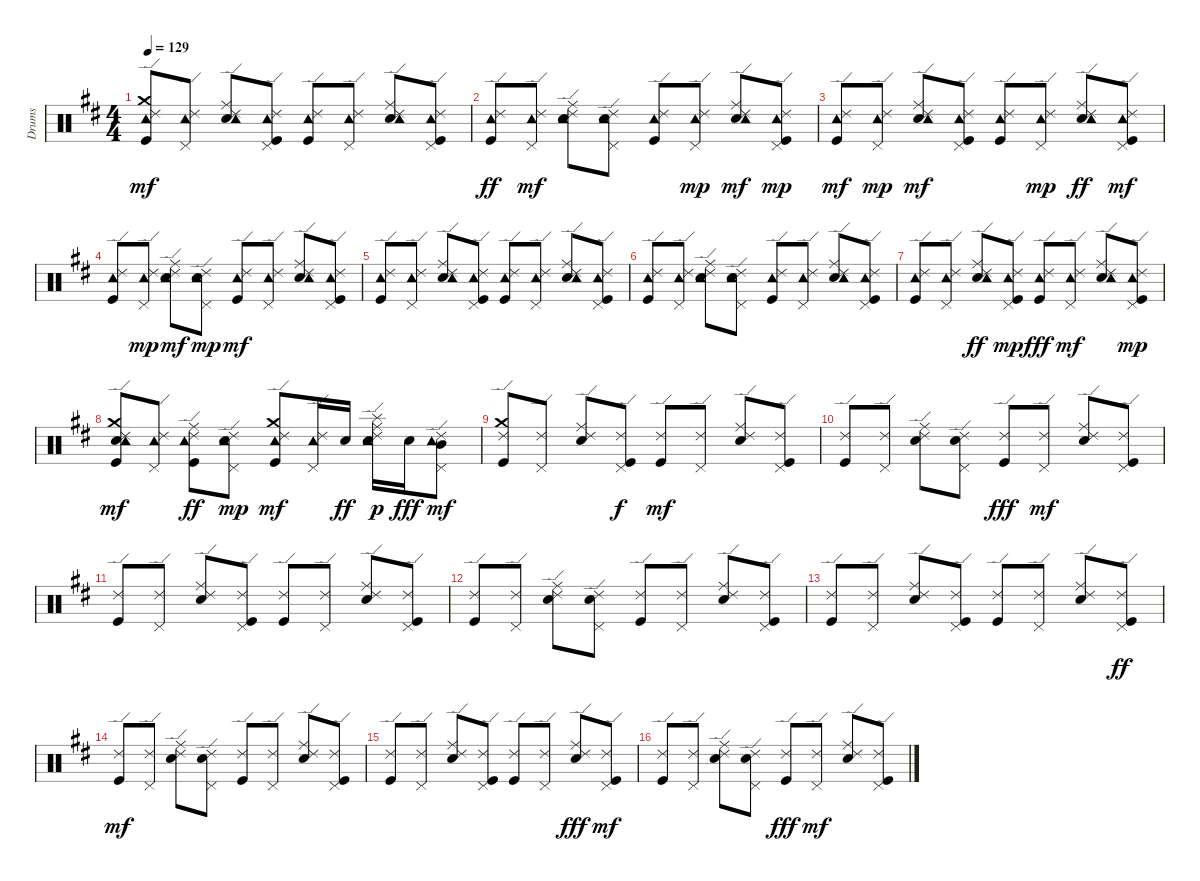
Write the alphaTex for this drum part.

\track ("Drums" "Drums") {instrument percussion}
\staff {score}
\articulation defaults
\ts (4 4)
\tempo 129
\clef neutral
\ks d
("Kick (hit)" "Tambourine (hit)" "Crash medium (hit)" "Ride (edge) 2").8{dy mf} ("Pedal Hi-Hat (hit)" "Tambourine (hit)" "Ride (edge) 2").8 ("Snare (hit) 2" "Ride (middle)" "Tambourine (hit)" "Ride (edge) 2").8 ("Kick (hit)" "Pedal Hi-Hat (hit)" "Tambourine (hit)" "Ride (edge) 2").8 ("Kick (hit)" "Tambourine (hit)" "Ride (edge) 2").8 ("Pedal Hi-Hat (hit)" "Tambourine (hit)" "Ride (edge) 2").8 ("Snare (hit) 2" "Ride (middle)" "Tambourine (hit)" "Ride (edge) 2").8 ("Kick (hit)" "Pedal Hi-Hat (hit)" "Tambourine (hit)" "Ride (edge) 2").8 |
("Kick (hit)" "Tambourine (hit)" "Ride (edge) 2").8{dy ff} ("Pedal Hi-Hat (hit)" "Tambourine (hit)" "Ride (edge) 2").8{dy mf} ("Snare (hit) 2" "Ride (middle)" "Tambourine (hit)" "Ride (edge) 2").8 ("Snare (hit) 2" "Pedal Hi-Hat (hit)" "Tambourine (hit)" "Ride (edge) 2").8 ("Kick (hit)" "Tambourine (hit)" "Ride (edge) 2").8 ("Pedal Hi-Hat (hit)" "Tambourine (hit)" "Ride (edge) 2").8{dy mp} ("Snare (hit) 2" "Ride (middle)" "Tambourine (hit)" "Ride (edge) 2").8{dy mf} ("Kick (hit)" "Pedal Hi-Hat (hit)" "Tambourine (hit)" "Ride (edge) 2").8{dy mp} |
("Kick (hit)" "Tambourine (hit)" "Ride (edge) 2").8{dy mf} ("Pedal Hi-Hat (hit)" "Tambourine (hit)" "Ride (edge) 2").8{dy mp} ("Snare (hit) 2" "Ride (middle)" "Tambourine (hit)" "Ride (edge) 2").8{dy mf} ("Kick (hit)" "Pedal Hi-Hat (hit)" "Tambourine (hit)" "Ride (edge) 2").8 ("Kick (hit)" "Tambourine (hit)" "Ride (edge) 2").8 ("Pedal Hi-Hat (hit)" "Tambourine (hit)" "Ride (edge) 2").8{dy mp} ("Snare (hit) 2" "Ride (middle)" "Tambourine (hit)" "Ride (edge) 2").8{dy ff} ("Kick (hit)" "Pedal Hi-Hat (hit)" "Tambourine (hit)" "Ride (edge) 2").8{dy mf} |
("Kick (hit)" "Tambourine (hit)" "Ride (edge) 2").8 ("Pedal Hi-Hat (hit)" "Tambourine (hit)" "Ride (edge) 2").8{dy mp} ("Snare (hit) 2" "Ride (middle)" "Tambourine (hit)" "Ride (edge) 2").8{dy mf} ("Snare (hit) 2" "Pedal Hi-Hat (hit)" "Tambourine (hit)" "Ride (edge) 2").8{dy mp} ("Kick (hit)" "Tambourine (hit)" "Ride (edge) 2").8{dy mf} ("Pedal Hi-Hat (hit)" "Tambourine (hit)" "Ride (edge) 2").8 ("Snare (hit) 2" "Ride (middle)" "Tambourine (hit)" "Ride (edge) 2").8 ("Kick (hit)" "Pedal Hi-Hat (hit)" "Tambourine (hit)" "Ride (edge) 2").8 |
("Kick (hit)" "Tambourine (hit)" "Ride (edge) 2").8 ("Pedal Hi-Hat (hit)" "Tambourine (hit)" "Ride (edge) 2").8 ("Snare (hit) 2" "Ride (middle)" "Tambourine (hit)" "Ride (edge) 2").8 ("Kick (hit)" "Pedal Hi-Hat (hit)" "Tambourine (hit)" "Ride (edge) 2").8 ("Kick (hit)" "Tambourine (hit)" "Ride (edge) 2").8 ("Pedal Hi-Hat (hit)" "Tambourine (hit)" "Ride (edge) 2").8 ("Snare (hit) 2" "Ride (middle)" "Tambourine (hit)" "Ride (edge) 2").8 ("Kick (hit)" "Pedal Hi-Hat (hit)" "Tambourine (hit)" "Ride (edge) 2").8 |
("Kick (hit)" "Tambourine (hit)" "Ride (edge) 2").8 ("Pedal Hi-Hat (hit)" "Tambourine (hit)" "Ride (edge) 2").8 ("Snare (hit) 2" "Ride (middle)" "Tambourine (hit)" "Ride (edge) 2").8 ("Snare (hit) 2" "Pedal Hi-Hat (hit)" "Tambourine (hit)" "Ride (edge) 2").8 ("Kick (hit)" "Tambourine (hit)" "Ride (edge) 2").8 ("Pedal Hi-Hat (hit)" "Tambourine (hit)" "Ride (edge) 2").8 ("Snare (hit) 2" "Ride (middle)" "Tambourine (hit)" "Ride (edge) 2").8 ("Kick (hit)" "Pedal Hi-Hat (hit)" "Tambourine (hit)" "Ride (edge) 2").8 |
("Kick (hit)" "Tambourine (hit)" "Ride (edge) 2").8 ("Pedal Hi-Hat (hit)" "Tambourine (hit)" "Ride (edge) 2").8 ("Snare (hit) 2" "Ride (middle)" "Tambourine (hit)" "Ride (edge) 2").8{dy ff} ("Kick (hit)" "Pedal Hi-Hat (hit)" "Tambourine (hit)" "Ride (edge) 2").8{dy mp} ("Kick (hit)" "Tambourine (hit)" "Ride (edge) 2").8{dy fff} ("Pedal Hi-Hat (hit)" "Tambourine (hit)" "Ride (edge) 2").8{dy mf} ("Snare (hit) 2" "Ride (middle)" "Tambourine (hit)" "Ride (edge) 2").8 ("Kick (hit)" "Pedal Hi-Hat (hit)" "Tambourine (hit)" "Ride (edge) 2").8{dy mp} |
("Kick (hit)" "Snare (hit) 2" "Tambourine (hit)" "Crash medium (hit)" "Ride (edge) 2").8{dy mf} ("Pedal Hi-Hat (hit)" "Tambourine (hit)" "Ride (edge) 2").8 ("Kick (hit)" "Ride (middle)" "Tambourine (hit)" "Ride (edge) 2").8{dy ff} ("Snare (hit) 2" "Pedal Hi-Hat (hit)" "Tambourine (hit)" "Ride (edge) 2").8{dy mp} ("Kick (hit)" "Tambourine (hit)" "Crash medium (hit)" "Ride (edge) 2").8{dy mf} ("Pedal Hi-Hat (hit)" "Tambourine (hit)" "Ride (edge) 2").16 "Snare (hit) 2".16{dy ff} ("Snare (hit) 2" "Ride (middle)" "Tambourine (hit)" "Splash (hit)" "Ride (edge) 2").16{dy p} "Snare (hit) 2".16{dy fff} ("Pedal Hi-Hat (hit)" "Mid Tom (hit)" "Tambourine (hit)" "Ride (edge) 2").8{dy mf} |
("Kick (hit)" "Crash medium (hit)" "Ride (edge) 2").8 ("Pedal Hi-Hat (hit)" "Ride (edge) 2").8 ("Snare (hit) 2" "Ride (middle)" "Ride (edge) 2").8 ("Kick (hit)" "Pedal Hi-Hat (hit)" "Ride (edge) 2").8{dy f} ("Kick (hit)" "Ride (edge) 2").8{dy mf} ("Pedal Hi-Hat (hit)" "Ride (edge) 2").8 ("Snare (hit) 2" "Ride (middle)" "Ride (edge) 2").8 ("Kick (hit)" "Pedal Hi-Hat (hit)" "Ride (edge) 2").8 |
("Kick (hit)" "Ride (edge) 2").8 ("Pedal Hi-Hat (hit)" "Ride (edge) 2").8 ("Snare (hit) 2" "Ride (middle)" "Ride (edge) 2").8 ("Snare (hit) 2" "Pedal Hi-Hat (hit)" "Ride (edge) 2").8 ("Kick (hit)" "Ride (edge) 2").8{dy fff} ("Pedal Hi-Hat (hit)" "Ride (edge) 2").8{dy mf} ("Snare (hit) 2" "Ride (middle)" "Ride (edge) 2").8 ("Kick (hit)" "Pedal Hi-Hat (hit)" "Ride (edge) 2").8 |
("Kick (hit)" "Ride (edge) 2").8 ("Pedal Hi-Hat (hit)" "Ride (edge) 2").8 ("Snare (hit) 2" "Ride (middle)" "Ride (edge) 2").8 ("Kick (hit)" "Pedal Hi-Hat (hit)" "Ride (edge) 2").8 ("Kick (hit)" "Ride (edge) 2").8 ("Pedal Hi-Hat (hit)" "Ride (edge) 2").8 ("Snare (hit) 2" "Ride (middle)" "Ride (edge) 2").8 ("Kick (hit)" "Pedal Hi-Hat (hit)" "Ride (edge) 2").8 |
("Kick (hit)" "Ride (edge) 2").8 ("Pedal Hi-Hat (hit)" "Ride (edge) 2").8 ("Snare (hit) 2" "Ride (middle)" "Ride (edge) 2").8 ("Snare (hit) 2" "Pedal Hi-Hat (hit)" "Ride (edge) 2").8 ("Kick (hit)" "Ride (edge) 2").8 ("Pedal Hi-Hat (hit)" "Ride (edge) 2").8 ("Snare (hit) 2" "Ride (middle)" "Ride (edge) 2").8 ("Kick (hit)" "Pedal Hi-Hat (hit)" "Ride (edge) 2").8 |
("Kick (hit)" "Ride (edge) 2").8 ("Pedal Hi-Hat (hit)" "Ride (edge) 2").8 ("Snare (hit) 2" "Ride (middle)" "Ride (edge) 2").8 ("Kick (hit)" "Pedal Hi-Hat (hit)" "Ride (edge) 2").8 ("Kick (hit)" "Ride (edge) 2").8 ("Pedal Hi-Hat (hit)" "Ride (edge) 2").8 ("Snare (hit) 2" "Ride (middle)" "Ride (edge) 2").8 ("Kick (hit)" "Pedal Hi-Hat (hit)" "Ride (edge) 2").8{dy ff} |
("Kick (hit)" "Ride (edge) 2").8{dy mf} ("Pedal Hi-Hat (hit)" "Ride (edge) 2").8 ("Snare (hit) 2" "Ride (middle)" "Ride (edge) 2").8 ("Snare (hit) 2" "Pedal Hi-Hat (hit)" "Ride (edge) 2").8 ("Kick (hit)" "Ride (edge) 2").8 ("Pedal Hi-Hat (hit)" "Ride (edge) 2").8 ("Snare (hit) 2" "Ride (middle)" "Ride (edge) 2").8 ("Kick (hit)" "Pedal Hi-Hat (hit)" "Ride (edge) 2").8 |
("Kick (hit)" "Ride (edge) 2").8 ("Pedal Hi-Hat (hit)" "Ride (edge) 2").8 ("Snare (hit) 2" "Ride (middle)" "Ride (edge) 2").8 ("Kick (hit)" "Pedal Hi-Hat (hit)" "Ride (edge) 2").8 ("Kick (hit)" "Ride (edge) 2").8 ("Pedal Hi-Hat (hit)" "Ride (edge) 2").8 ("Snare (hit) 2" "Ride (middle)" "Ride (edge) 2").8{dy fff} ("Kick (hit)" "Pedal Hi-Hat (hit)" "Ride (edge) 2").8{dy mf} |
("Kick (hit)" "Ride (edge) 2").8 ("Pedal Hi-Hat (hit)" "Ride (edge) 2").8 ("Snare (hit) 2" "Ride (middle)" "Ride (edge) 2").8 ("Snare (hit) 2" "Pedal Hi-Hat (hit)" "Ride (edge) 2").8 ("Kick (hit)" "Ride (edge) 2").8{dy fff} ("Pedal Hi-Hat (hit)" "Ride (edge) 2").8{dy mf} ("Snare (hit) 2" "Ride (middle)" "Ride (edge) 2").8 ("Kick (hit)" "Pedal Hi-Hat (hit)" "Ride (edge) 2").8
